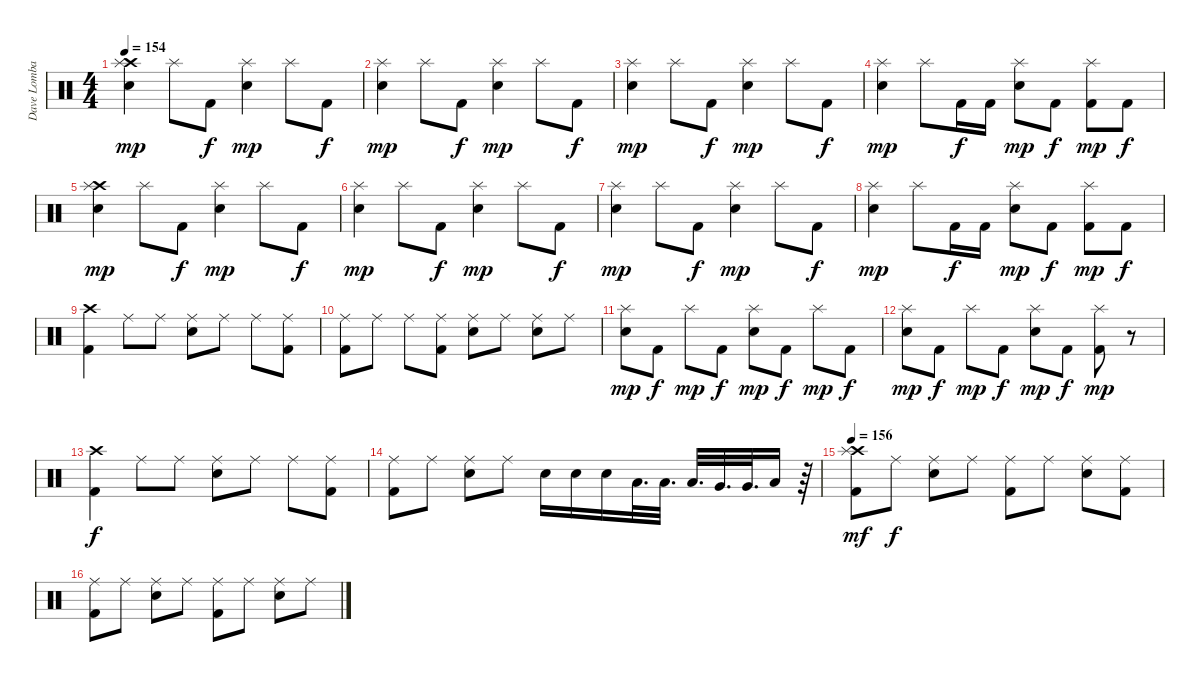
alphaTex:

\track ("Dave Lombardo" "Dave Lomba") {instrument percussion}
\staff {score}
\articulation defaults
\ts (4 4)
\tempo 154
\clef neutral
\ks c
("Crash high (hit)" "Splash (hit)" "Snare (hit) 2").4{dy mp} "Splash (hit)".8 "Kick (hit) 2".8{dy f} ("Splash (hit)" "Snare (hit) 2").4{dy mp} "Splash (hit)".8 "Kick (hit) 2".8{dy f} |
("Splash (hit)" "Snare (hit) 2").4{dy mp} "Splash (hit)".8 "Kick (hit) 2".8{dy f} ("Splash (hit)" "Snare (hit) 2").4{dy mp} "Splash (hit)".8 "Kick (hit) 2".8{dy f} |
("Splash (hit)" "Snare (hit) 2").4{dy mp} "Splash (hit)".8 "Kick (hit) 2".8{dy f} ("Splash (hit)" "Snare (hit) 2").4{dy mp} "Splash (hit)".8 "Kick (hit) 2".8{dy f} |
("Splash (hit)" "Snare (hit) 2").4{dy mp} "Splash (hit)".8 "Kick (hit) 2".16{dy f} "Kick (hit) 2".16 ("Splash (hit)" "Snare (hit) 2").8{dy mp} "Kick (hit) 2".8{dy f} ("Splash (hit)" "Kick (hit) 2").8{dy mp} "Kick (hit) 2".8{dy f} |
("Crash high (hit)" "Splash (hit)" "Snare (hit) 2").4{dy mp} "Splash (hit)".8 "Kick (hit) 2".8{dy f} ("Splash (hit)" "Snare (hit) 2").4{dy mp} "Splash (hit)".8 "Kick (hit) 2".8{dy f} |
("Splash (hit)" "Snare (hit) 2").4{dy mp} "Splash (hit)".8 "Kick (hit) 2".8{dy f} ("Splash (hit)" "Snare (hit) 2").4{dy mp} "Splash (hit)".8 "Kick (hit) 2".8{dy f} |
("Splash (hit)" "Snare (hit) 2").4{dy mp} "Splash (hit)".8 "Kick (hit) 2".8{dy f} ("Splash (hit)" "Snare (hit) 2").4{dy mp} "Splash (hit)".8 "Kick (hit) 2".8{dy f} |
("Splash (hit)" "Snare (hit) 2").4{dy mp} "Splash (hit)".8 "Kick (hit) 2".16{dy f} "Kick (hit) 2".16 ("Splash (hit)" "Snare (hit) 2").8{dy mp} "Kick (hit) 2".8{dy f} ("Splash (hit)" "Kick (hit) 2").8{dy mp} "Kick (hit) 2".8{dy f} |
("Crash high (hit)" "Kick (hit) 2").4 "Ride (middle)".8 "Ride (middle)".8 ("Ride (middle)" "Snare (hit) 2").8 "Ride (middle)".8 "Ride (middle)".8 ("Ride (middle)" "Kick (hit) 2").8 |
("Ride (middle)" "Kick (hit) 2").8 "Ride (middle)".8 "Ride (middle)".8 ("Ride (middle)" "Kick (hit) 2").8 ("Ride (middle)" "Snare (hit) 2").8 "Ride (middle)".8 ("Ride (middle)" "Snare (hit) 2").8 "Ride (middle)".8 |
("Splash (hit)" "Snare (hit) 2").8{dy mp} "Kick (hit) 2".8{dy f} "Splash (hit)".8{dy mp} "Kick (hit) 2".8{dy f} ("Splash (hit)" "Snare (hit) 2").8{dy mp} "Kick (hit) 2".8{dy f} "Splash (hit)".8{dy mp} "Kick (hit) 2".8{dy f} |
("Splash (hit)" "Snare (hit) 2").8{dy mp} "Kick (hit) 2".8{dy f} "Splash (hit)".8{dy mp} "Kick (hit) 2".8{dy f} ("Splash (hit)" "Snare (hit) 2").8{dy mp} "Kick (hit) 2".8{dy f} ("Splash (hit)" "Kick (hit) 2").8{dy mp} r.8 |
("Crash high (hit)" "Kick (hit) 2").4{dy f} "Ride (middle)".8 "Ride (middle)".8 ("Ride (middle)" "Snare (hit) 2").8 "Ride (middle)".8 "Ride (middle)".8 ("Ride (middle)" "Kick (hit) 2").8 |
("Ride (middle)" "Kick (hit) 2").8 "Ride (middle)".8 ("Ride (middle)" "Snare (hit) 2").8 "Ride (middle)".8 "Snare (hit) 2".16 "Snare (hit) 2".16 "Snare (hit) 2".16 "Low Tom (hit)".32{d} "Low Tom (hit)".32{d} "Low Tom (hit)".32{d} "Very Low Tom (hit)".32{d} "Very Low Tom (hit)".32{d} "Low Floor Tom (hit)".16 r.64 |
\tempo 156
("Crash high (hit)" "Splash (hit)" "Kick (hit) 2").8{dy mf} "Ride (middle)".8{dy f} ("Ride (middle)" "Snare (hit) 2").8 "Ride (middle)".8 ("Ride (middle)" "Kick (hit) 2").8 "Ride (middle)".8 ("Ride (middle)" "Snare (hit) 2").8 ("Ride (middle)" "Kick (hit) 2").8 |
("Ride (middle)" "Kick (hit) 2").8 "Ride (middle)".8 ("Ride (middle)" "Snare (hit) 2").8 "Ride (middle)".8 ("Ride (middle)" "Kick (hit) 2").8 "Ride (middle)".8 ("Ride (middle)" "Snare (hit) 2").8 "Ride (middle)".8
